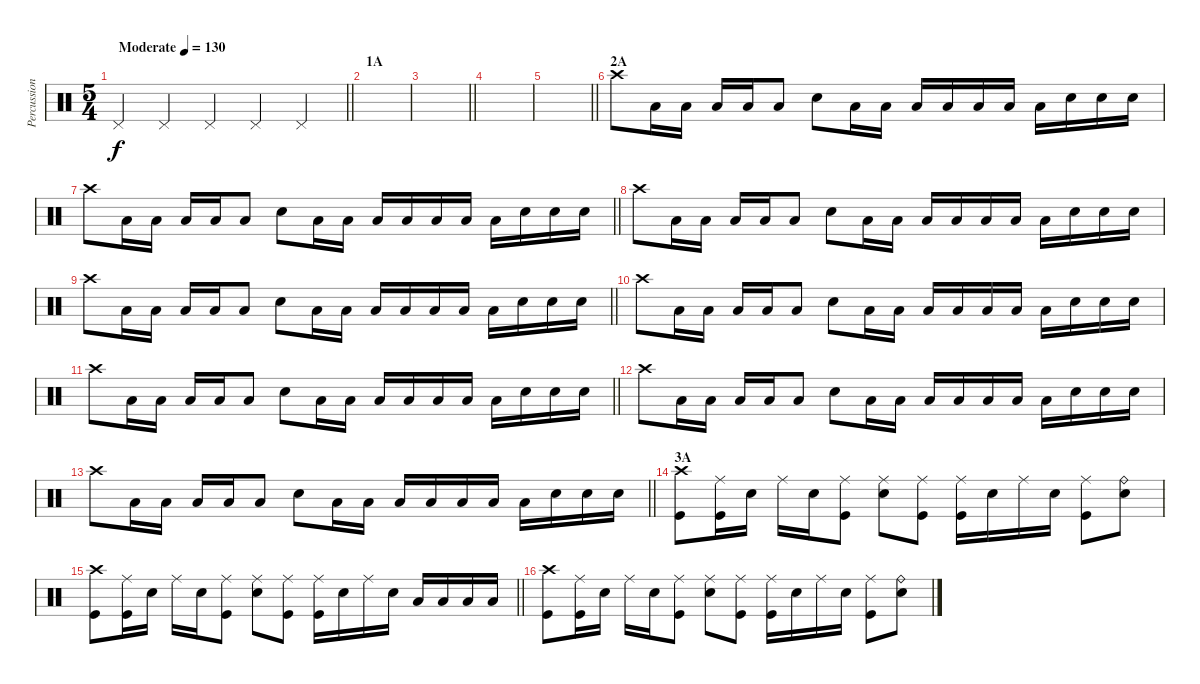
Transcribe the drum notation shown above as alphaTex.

\track ("Percussion" "Percussion") {instrument percussion}
\staff {score}
\articulation defaults
\ts (5 4)
\tempo (130 "Moderate")
\clef neutral
\barLineRight lightlight
\ks c "Pedal Hi-Hat (hit)".4{dy f} "Pedal Hi-Hat (hit)".4 "Pedal Hi-Hat (hit)".4 "Pedal Hi-Hat (hit)".4 "Pedal Hi-Hat (hit)".4
|
\section ("" "1A")
|
\barLineRight lightlight
|
|
\barLineRight lightlight
|
\section ("" "2A")
"Crash high (hit)".8 "Low Floor Tom (hit)".16 "Low Floor Tom (hit)".16 "Low Floor Tom (hit)".16 "Low Tom (hit)".16 "Low Floor Tom (hit)".8 "Snare (hit) 2".8 "Low Floor Tom (hit)".16 "Low Floor Tom (hit)".16 "Low Floor Tom (hit)".16 "Low Tom (hit)".16 "Low Floor Tom (hit)".16 "Low Tom (hit)".16 "Low Floor Tom (hit)".16 "Snare (hit) 2".16 "Snare (hit) 2".16 "Snare (hit) 2".16 |
\barLineRight lightlight "Crash high (hit)".8 "Low Floor Tom (hit)".16 "Low Floor Tom (hit)".16 "Low Floor Tom (hit)".16 "Low Tom (hit)".16 "Low Floor Tom (hit)".8 "Snare (hit) 2".8 "Low Floor Tom (hit)".16 "Low Floor Tom (hit)".16 "Low Floor Tom (hit)".16 "Low Tom (hit)".16 "Low Floor Tom (hit)".16 "Low Tom (hit)".16 "Low Floor Tom (hit)".16 "Snare (hit) 2".16 "Snare (hit) 2".16 "Snare (hit) 2".16
|
"Crash high (hit)".8 "Low Floor Tom (hit)".16 "Low Floor Tom (hit)".16 "Low Floor Tom (hit)".16 "Low Tom (hit)".16 "Low Floor Tom (hit)".8 "Snare (hit) 2".8 "Low Floor Tom (hit)".16 "Low Floor Tom (hit)".16 "Low Floor Tom (hit)".16 "Low Tom (hit)".16 "Low Floor Tom (hit)".16 "Low Tom (hit)".16 "Low Floor Tom (hit)".16 "Snare (hit) 2".16 "Snare (hit) 2".16 "Snare (hit) 2".16 |
\barLineRight lightlight "Crash high (hit)".8 "Low Floor Tom (hit)".16 "Low Floor Tom (hit)".16 "Low Floor Tom (hit)".16 "Low Tom (hit)".16 "Low Floor Tom (hit)".8 "Snare (hit) 2".8 "Low Floor Tom (hit)".16 "Low Floor Tom (hit)".16 "Low Floor Tom (hit)".16 "Low Tom (hit)".16 "Low Floor Tom (hit)".16 "Low Tom (hit)".16 "Low Floor Tom (hit)".16 "Snare (hit) 2".16 "Snare (hit) 2".16 "Snare (hit) 2".16
|
"Crash high (hit)".8 "Low Floor Tom (hit)".16 "Low Floor Tom (hit)".16 "Low Floor Tom (hit)".16 "Low Tom (hit)".16 "Low Floor Tom (hit)".8 "Snare (hit) 2".8 "Low Floor Tom (hit)".16 "Low Floor Tom (hit)".16 "Low Floor Tom (hit)".16 "Low Tom (hit)".16 "Low Floor Tom (hit)".16 "Low Tom (hit)".16 "Low Floor Tom (hit)".16 "Snare (hit) 2".16 "Snare (hit) 2".16 "Snare (hit) 2".16 |
\barLineRight lightlight "Crash high (hit)".8 "Low Floor Tom (hit)".16 "Low Floor Tom (hit)".16 "Low Floor Tom (hit)".16 "Low Tom (hit)".16 "Low Floor Tom (hit)".8 "Snare (hit) 2".8 "Low Floor Tom (hit)".16 "Low Floor Tom (hit)".16 "Low Floor Tom (hit)".16 "Low Tom (hit)".16 "Low Floor Tom (hit)".16 "Low Tom (hit)".16 "Low Floor Tom (hit)".16 "Snare (hit) 2".16 "Snare (hit) 2".16 "Snare (hit) 2".16
|
"Crash high (hit)".8 "Low Floor Tom (hit)".16 "Low Floor Tom (hit)".16 "Low Floor Tom (hit)".16 "Low Tom (hit)".16 "Low Floor Tom (hit)".8 "Snare (hit) 2".8 "Low Floor Tom (hit)".16 "Low Floor Tom (hit)".16 "Low Floor Tom (hit)".16 "Low Tom (hit)".16 "Low Floor Tom (hit)".16 "Low Tom (hit)".16 "Low Floor Tom (hit)".16 "Snare (hit) 2".16 "Snare (hit) 2".16 "Snare (hit) 2".16 |
\barLineRight lightlight "Crash high (hit)".8 "Low Floor Tom (hit)".16 "Low Floor Tom (hit)".16 "Low Floor Tom (hit)".16 "Low Tom (hit)".16 "Low Floor Tom (hit)".8 "Snare (hit) 2".8 "Low Floor Tom (hit)".16 "Low Floor Tom (hit)".16 "Low Floor Tom (hit)".16 "Low Tom (hit)".16 "Low Floor Tom (hit)".16 "Low Tom (hit)".16 "Low Floor Tom (hit)".16 "Snare (hit) 2".16 "Snare (hit) 2".16 "Snare (hit) 2".16
|
\section ("" "3A")
("Crash high (hit)" "Kick (hit)").8 ("Ride (middle)" "Kick (hit)").16 "Snare (hit) 2".16 "Ride (middle)".16 "Snare (hit) 2".16 ("Ride (middle)" "Kick (hit)").8 ("Ride (middle)" "Snare (hit) 2").8 ("Ride (middle)" "Kick (hit)").8 ("Ride (middle)" "Kick (hit)").16 "Snare (hit) 2".16 "Ride (middle)".16 "Snare (hit) 2".16 ("Ride (middle)" "Kick (hit)").8 ("Ride (bell)" "Snare (hit) 2").8 |
\barLineRight lightlight
("Crash high (hit)" "Kick (hit)").8 ("Ride (middle)" "Kick (hit)").16 "Snare (hit) 2".16 "Ride (middle)".16 "Snare (hit) 2".16 ("Ride (middle)" "Kick (hit)").8 ("Ride (middle)" "Snare (hit) 2").8 ("Ride (middle)" "Kick (hit)").8 ("Ride (middle)" "Kick (hit)").16 "Snare (hit) 2".16 "Ride (middle)".16 "Snare (hit) 2".16 "Low Tom (hit)".16 "Low Tom (hit)".16 "Low Floor Tom (hit)".16 "Low Floor Tom (hit)".16 |
("Crash high (hit)" "Kick (hit)").8 ("Ride (middle)" "Kick (hit)").16 "Snare (hit) 2".16 "Ride (middle)".16 "Snare (hit) 2".16 ("Ride (middle)" "Kick (hit)").8 ("Ride (middle)" "Snare (hit) 2").8 ("Ride (middle)" "Kick (hit)").8 ("Ride (middle)" "Kick (hit)").16 "Snare (hit) 2".16 "Ride (middle)".16 "Snare (hit) 2".16 ("Ride (middle)" "Kick (hit)").8 ("Ride (bell)" "Snare (hit) 2").8
